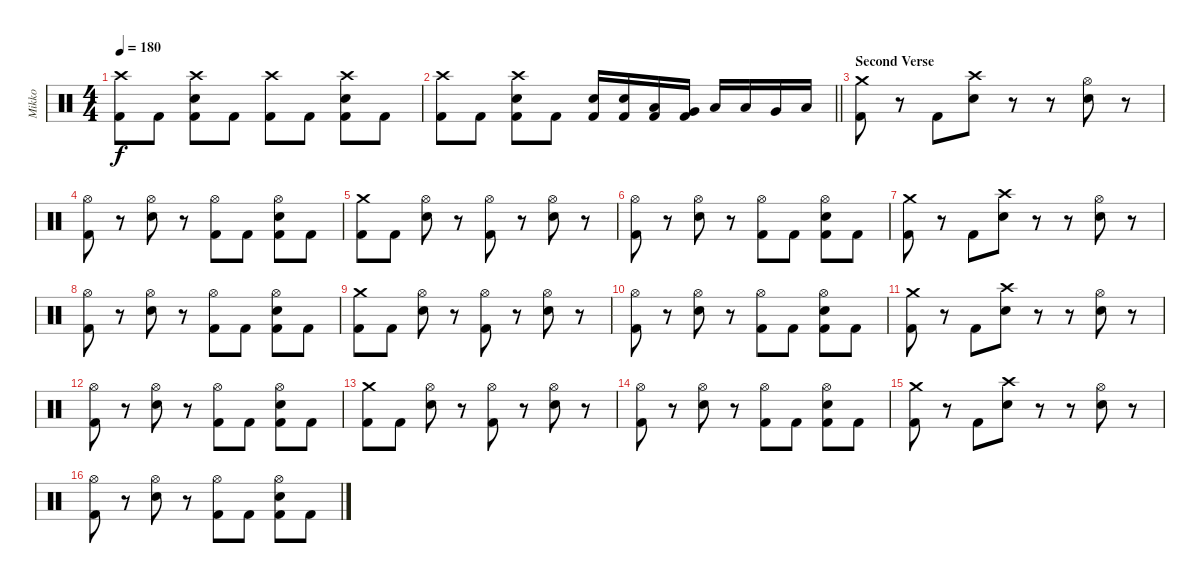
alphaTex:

\track ("Mikko" "Mikko") {instrument percussion}
\staff {score}
\articulation defaults
\ts (4 4)
\tempo 180
\clef neutral
\ks c
("Crash high (hit)" "Kick (hit) 2").8{dy f} "Kick (hit) 2".8 ("Crash high (hit)" "Electric Snare (hit)" "Kick (hit) 2").8 "Kick (hit) 2".8 ("Crash high (hit)" "Kick (hit) 2").8 "Kick (hit) 2".8 ("Crash high (hit)" "Electric Snare (hit)" "Kick (hit) 2").8 "Kick (hit) 2".8 |
\barLineRight lightlight
("Crash high (hit)" "Kick (hit) 2").8 "Kick (hit) 2".8 ("Crash high (hit)" "Electric Snare (hit)" "Kick (hit) 2").8 "Kick (hit) 2".8 ("Electric Snare (hit)" "Kick (hit) 2").16 ("Electric Snare (hit)" "Kick (hit) 2").16 ("Low Tom (hit)" "Kick (hit) 2").16 ("Very Low Tom (hit)" "Kick (hit) 2").16 "Low Floor Tom (hit)".16 "Low Tom (hit)".16 "Very Low Tom (hit)".16 "Low Floor Tom (hit)".16 |
\section ("" "Second Verse")
("Crash medium (hit)" "Kick (hit) 2").8 r.8 "Kick (hit) 2".8 ("Crash high (hit)" "Electric Snare (hit)").8 r.8 r.8 ("Hi-Hat (open)" "Electric Snare (hit)").8 r.8 |
("Hi-Hat (open)" "Kick (hit) 2").8 r.8 ("Hi-Hat (open)" "Electric Snare (hit)").8 r.8 ("Hi-Hat (open)" "Kick (hit) 2").8 "Kick (hit) 2".8 ("Hi-Hat (open)" "Electric Snare (hit)" "Kick (hit) 2").8 "Kick (hit) 2".8 |
("Crash medium (hit)" "Kick (hit) 2").8 "Kick (hit) 2".8 ("Hi-Hat (open)" "Electric Snare (hit)").8 r.8 ("Hi-Hat (open)" "Kick (hit) 2").8 r.8 ("Hi-Hat (open)" "Electric Snare (hit)").8 r.8 |
("Hi-Hat (open)" "Kick (hit) 2").8 r.8 ("Hi-Hat (open)" "Electric Snare (hit)").8 r.8 ("Hi-Hat (open)" "Kick (hit) 2").8 "Kick (hit) 2".8 ("Hi-Hat (open)" "Electric Snare (hit)" "Kick (hit) 2").8 "Kick (hit) 2".8 |
("Crash medium (hit)" "Kick (hit) 2").8 r.8 "Kick (hit) 2".8 ("Crash high (hit)" "Electric Snare (hit)").8 r.8 r.8 ("Hi-Hat (open)" "Electric Snare (hit)").8 r.8 |
("Hi-Hat (open)" "Kick (hit) 2").8 r.8 ("Hi-Hat (open)" "Electric Snare (hit)").8 r.8 ("Hi-Hat (open)" "Kick (hit) 2").8 "Kick (hit) 2".8 ("Hi-Hat (open)" "Electric Snare (hit)" "Kick (hit) 2").8 "Kick (hit) 2".8 |
("Crash medium (hit)" "Kick (hit) 2").8 "Kick (hit) 2".8 ("Hi-Hat (open)" "Electric Snare (hit)").8 r.8 ("Hi-Hat (open)" "Kick (hit) 2").8 r.8 ("Hi-Hat (open)" "Electric Snare (hit)").8 r.8 |
("Hi-Hat (open)" "Kick (hit) 2").8 r.8 ("Hi-Hat (open)" "Electric Snare (hit)").8 r.8 ("Hi-Hat (open)" "Kick (hit) 2").8 "Kick (hit) 2".8 ("Hi-Hat (open)" "Electric Snare (hit)" "Kick (hit) 2").8 "Kick (hit) 2".8 |
("Crash medium (hit)" "Kick (hit) 2").8 r.8 "Kick (hit) 2".8 ("Crash high (hit)" "Electric Snare (hit)").8 r.8 r.8 ("Hi-Hat (open)" "Electric Snare (hit)").8 r.8 |
("Hi-Hat (open)" "Kick (hit) 2").8 r.8 ("Hi-Hat (open)" "Electric Snare (hit)").8 r.8 ("Hi-Hat (open)" "Kick (hit) 2").8 "Kick (hit) 2".8 ("Hi-Hat (open)" "Electric Snare (hit)" "Kick (hit) 2").8 "Kick (hit) 2".8 |
("Crash medium (hit)" "Kick (hit) 2").8 "Kick (hit) 2".8 ("Hi-Hat (open)" "Electric Snare (hit)").8 r.8 ("Hi-Hat (open)" "Kick (hit) 2").8 r.8 ("Hi-Hat (open)" "Electric Snare (hit)").8 r.8 |
("Hi-Hat (open)" "Kick (hit) 2").8 r.8 ("Hi-Hat (open)" "Electric Snare (hit)").8 r.8 ("Hi-Hat (open)" "Kick (hit) 2").8 "Kick (hit) 2".8 ("Hi-Hat (open)" "Electric Snare (hit)" "Kick (hit) 2").8 "Kick (hit) 2".8 |
("Crash medium (hit)" "Kick (hit) 2").8 r.8 "Kick (hit) 2".8 ("Crash high (hit)" "Electric Snare (hit)").8 r.8 r.8 ("Hi-Hat (open)" "Electric Snare (hit)").8 r.8 |
("Hi-Hat (open)" "Kick (hit) 2").8 r.8 ("Hi-Hat (open)" "Electric Snare (hit)").8 r.8 ("Hi-Hat (open)" "Kick (hit) 2").8 "Kick (hit) 2".8 ("Hi-Hat (open)" "Electric Snare (hit)" "Kick (hit) 2").8 "Kick (hit) 2".8
